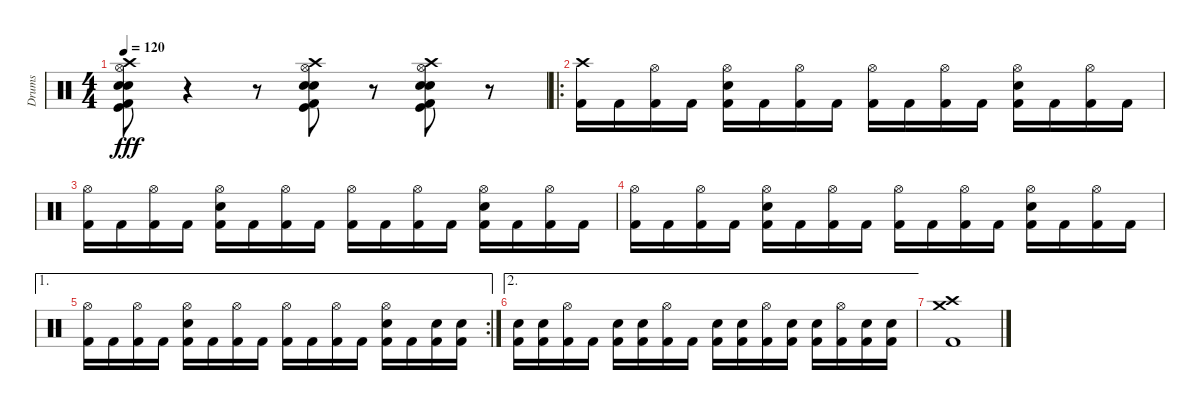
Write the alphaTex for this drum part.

\track ("Drums" "Drums") {instrument percussion}
\staff {score}
\articulation defaults
\ts (4 4)
\tempo 120
\clef neutral
\ks c
("Kick (hit) 2" "Kick (hit)" "Electric Snare (hit)" "Snare (hit) 2" "Hi-Hat (open)" "Crash high (hit)").8{dy fff} r.4 r.8 ("Kick (hit) 2" "Kick (hit)" "Electric Snare (hit)" "Snare (hit) 2" "Hi-Hat (open)" "Crash high (hit)").8 r.8 ("Kick (hit) 2" "Kick (hit)" "Electric Snare (hit)" "Snare (hit) 2" "Hi-Hat (open)" "Crash high (hit)").8 r.8 |
\ro
("Crash high (hit)" "Kick (hit) 2").16 "Kick (hit) 2".16 ("Hi-Hat (open)" "Kick (hit) 2").16 "Kick (hit) 2".16 ("Hi-Hat (open)" "Electric Snare (hit)" "Kick (hit) 2").16 "Kick (hit) 2".16 ("Hi-Hat (open)" "Kick (hit) 2").16 "Kick (hit) 2".16 ("Hi-Hat (open)" "Kick (hit) 2").16 "Kick (hit) 2".16 ("Hi-Hat (open)" "Kick (hit) 2").16 "Kick (hit) 2".16 ("Hi-Hat (open)" "Electric Snare (hit)" "Kick (hit) 2").16 "Kick (hit) 2".16 ("Hi-Hat (open)" "Kick (hit) 2").16 "Kick (hit) 2".16 |
("Hi-Hat (open)" "Kick (hit) 2").16 "Kick (hit) 2".16 ("Hi-Hat (open)" "Kick (hit) 2").16 "Kick (hit) 2".16 ("Hi-Hat (open)" "Electric Snare (hit)" "Kick (hit) 2").16 "Kick (hit) 2".16 ("Hi-Hat (open)" "Kick (hit) 2").16 "Kick (hit) 2".16 ("Hi-Hat (open)" "Kick (hit) 2").16 "Kick (hit) 2".16 ("Hi-Hat (open)" "Kick (hit) 2").16 "Kick (hit) 2".16 ("Hi-Hat (open)" "Electric Snare (hit)" "Kick (hit) 2").16 "Kick (hit) 2".16 ("Hi-Hat (open)" "Kick (hit) 2").16 "Kick (hit) 2".16 |
("Hi-Hat (open)" "Kick (hit) 2").16 "Kick (hit) 2".16 ("Hi-Hat (open)" "Kick (hit) 2").16 "Kick (hit) 2".16 ("Hi-Hat (open)" "Electric Snare (hit)" "Kick (hit) 2").16 "Kick (hit) 2".16 ("Hi-Hat (open)" "Kick (hit) 2").16 "Kick (hit) 2".16 ("Hi-Hat (open)" "Kick (hit) 2").16 "Kick (hit) 2".16 ("Hi-Hat (open)" "Kick (hit) 2").16 "Kick (hit) 2".16 ("Hi-Hat (open)" "Electric Snare (hit)" "Kick (hit) 2").16 "Kick (hit) 2".16 ("Hi-Hat (open)" "Kick (hit) 2").16 "Kick (hit) 2".16 |
\ae 1
\rc 2
("Hi-Hat (open)" "Kick (hit) 2").16 "Kick (hit) 2".16 ("Hi-Hat (open)" "Kick (hit) 2").16 "Kick (hit) 2".16 ("Hi-Hat (open)" "Electric Snare (hit)" "Kick (hit) 2").16 "Kick (hit) 2".16 ("Hi-Hat (open)" "Kick (hit) 2").16 "Kick (hit) 2".16 ("Hi-Hat (open)" "Kick (hit) 2").16 "Kick (hit) 2".16 ("Hi-Hat (open)" "Kick (hit) 2").16 "Kick (hit) 2".16 ("Hi-Hat (open)" "Electric Snare (hit)" "Kick (hit) 2").16 "Kick (hit) 2".16 ("Electric Snare (hit)" "Kick (hit) 2").16 ("Electric Snare (hit)" "Kick (hit) 2").16 |
\ae 2
("Electric Snare (hit)" "Kick (hit) 2").16 ("Electric Snare (hit)" "Kick (hit) 2").16 ("Hi-Hat (open)" "Kick (hit) 2").16 "Kick (hit) 2".16 ("Electric Snare (hit)" "Kick (hit) 2").16 ("Electric Snare (hit)" "Kick (hit) 2").16 ("Hi-Hat (open)" "Kick (hit) 2").16 "Kick (hit) 2".16 ("Electric Snare (hit)" "Kick (hit) 2").16 ("Electric Snare (hit)" "Kick (hit) 2").16 ("Hi-Hat (open)" "Kick (hit) 2").16 ("Electric Snare (hit)" "Kick (hit) 2").16 ("Electric Snare (hit)" "Kick (hit) 2").16 ("Hi-Hat (open)" "Kick (hit) 2").16 ("Electric Snare (hit)" "Kick (hit) 2").16 ("Electric Snare (hit)" "Kick (hit) 2").16 |
("Crash medium (hit)" "Crash high (hit)" "Kick (hit) 2").1
